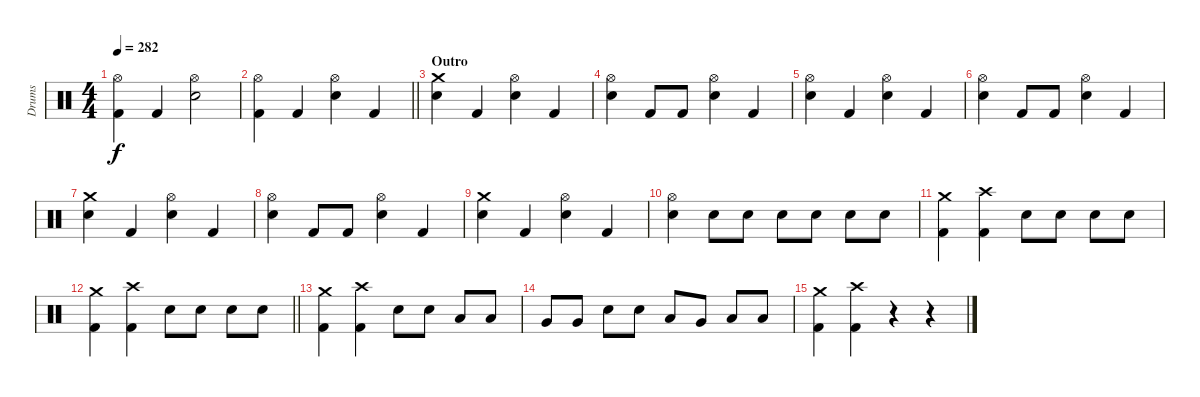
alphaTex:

\track ("Drums" "Drums") {instrument percussion}
\staff {score}
\articulation defaults
\ts (4 4)
\tempo 282
\clef neutral
\ks c
("Hi-Hat (open)" "Kick (hit) 2").4{dy f} "Kick (hit) 2".4 ("Hi-Hat (open)" "Electric Snare (hit)").2 |
\barLineRight lightlight
("Hi-Hat (open)" "Kick (hit) 2").4 "Kick (hit) 2".4 ("Hi-Hat (open)" "Electric Snare (hit)").4 "Kick (hit) 2".4 |
\section ("" "Outro")
("Crash medium (hit)" "Electric Snare (hit)").4 "Kick (hit) 2".4 ("Hi-Hat (open)" "Electric Snare (hit)").4 "Kick (hit) 2".4 |
("Hi-Hat (open)" "Electric Snare (hit)").4 "Kick (hit) 2".8 "Kick (hit) 2".8 ("Hi-Hat (open)" "Electric Snare (hit)").4 "Kick (hit) 2".4 |
("Hi-Hat (open)" "Electric Snare (hit)").4 "Kick (hit) 2".4 ("Hi-Hat (open)" "Electric Snare (hit)").4 "Kick (hit) 2".4 |
("Hi-Hat (open)" "Electric Snare (hit)").4 "Kick (hit) 2".8 "Kick (hit) 2".8 ("Hi-Hat (open)" "Electric Snare (hit)").4 "Kick (hit) 2".4 |
("Crash medium (hit)" "Electric Snare (hit)").4 "Kick (hit) 2".4 ("Hi-Hat (open)" "Electric Snare (hit)").4 "Kick (hit) 2".4 |
("Hi-Hat (open)" "Electric Snare (hit)").4 "Kick (hit) 2".8 "Kick (hit) 2".8 ("Hi-Hat (open)" "Electric Snare (hit)").4 "Kick (hit) 2".4 |
("Crash medium (hit)" "Electric Snare (hit)").4 "Kick (hit) 2".4 ("Hi-Hat (open)" "Electric Snare (hit)").4 "Kick (hit) 2".4 |
("Hi-Hat (open)" "Electric Snare (hit)").4 "Electric Snare (hit)".8 "Electric Snare (hit)".8 "Electric Snare (hit)".8 "Electric Snare (hit)".8 "Electric Snare (hit)".8 "Electric Snare (hit)".8 |
("Crash medium (hit)" "Kick (hit) 2").4 ("Crash high (hit)" "Kick (hit) 2").4 "Electric Snare (hit)".8 "Electric Snare (hit)".8 "Electric Snare (hit)".8 "Electric Snare (hit)".8 |
\barLineRight lightlight
("Crash medium (hit)" "Kick (hit) 2").4 ("Crash high (hit)" "Kick (hit) 2").4 "Electric Snare (hit)".8 "Electric Snare (hit)".8 "Electric Snare (hit)".8 "Electric Snare (hit)".8 |
("Crash medium (hit)" "Kick (hit) 2").4 ("Crash high (hit)" "Kick (hit) 2").4 "Electric Snare (hit)".8 "Electric Snare (hit)".8 "Low Tom (hit)".8 "Low Tom (hit)".8 |
"Very Low Tom (hit)".8 "Very Low Tom (hit)".8 "Electric Snare (hit)".8 "Electric Snare (hit)".8 "Low Tom (hit)".8 "Very Low Tom (hit)".8 "Low Floor Tom (hit)".8 "Low Floor Tom (hit)".8 |
("Crash medium (hit)" "Kick (hit) 2").4 ("Crash high (hit)" "Kick (hit) 2").4 r.4 r.4
